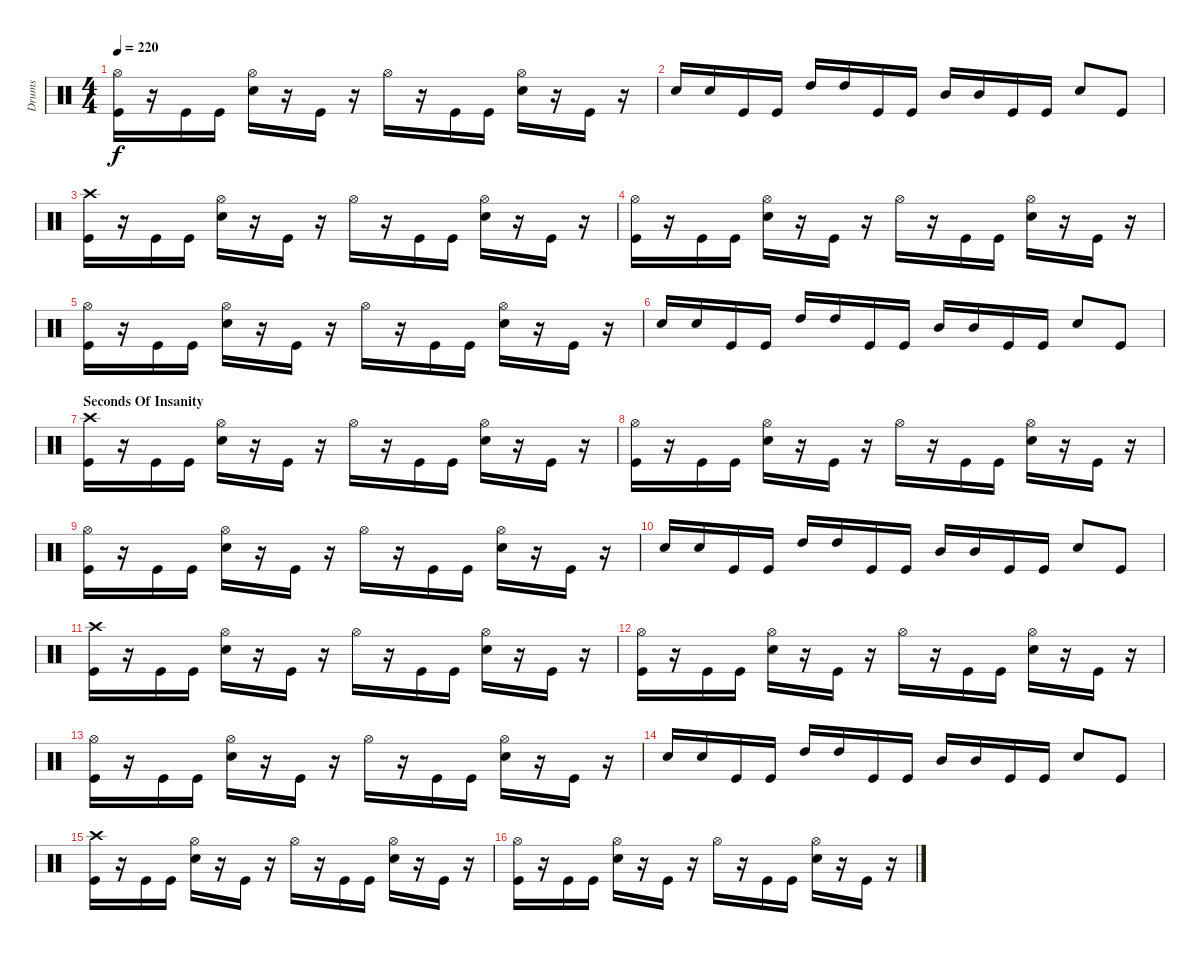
\track ("Drums" "Drums") {instrument percussion}
\staff {score}
\articulation defaults
\ts (4 4)
\tempo 220
\clef neutral
\ks c
("Hi-Hat (open)" "Kick (hit)").16{dy f} r.16 "Kick (hit)".16 "Kick (hit)".16 ("Hi-Hat (open)" "Snare (hit) 2").16 r.16 "Kick (hit)".16 r.16 "Hi-Hat (open)".16 r.16 "Kick (hit)".16 "Kick (hit)".16 ("Hi-Hat (open)" "Snare (hit) 2").16 r.16 "Kick (hit)".16 r.16 |
"Snare (hit) 2".16 "Snare (hit) 2".16 "Kick (hit)".16 "Kick (hit)".16 "High Tom (hit)".16 "High Tom (hit)".16 "Kick (hit)".16 "Kick (hit)".16 "Mid Tom (hit)".16 "Mid Tom (hit)".16 "Kick (hit)".16 "Kick (hit)".16 "Snare (hit) 2".8 "Kick (hit)".8 |
("Crash high (hit)" "Kick (hit)").16 r.16 "Kick (hit)".16 "Kick (hit)".16 ("Hi-Hat (open)" "Snare (hit) 2").16 r.16 "Kick (hit)".16 r.16 "Hi-Hat (open)".16 r.16 "Kick (hit)".16 "Kick (hit)".16 ("Hi-Hat (open)" "Snare (hit) 2").16 r.16 "Kick (hit)".16 r.16 |
("Hi-Hat (open)" "Kick (hit)").16 r.16 "Kick (hit)".16 "Kick (hit)".16 ("Hi-Hat (open)" "Snare (hit) 2").16 r.16 "Kick (hit)".16 r.16 "Hi-Hat (open)".16 r.16 "Kick (hit)".16 "Kick (hit)".16 ("Hi-Hat (open)" "Snare (hit) 2").16 r.16 "Kick (hit)".16 r.16 |
("Hi-Hat (open)" "Kick (hit)").16 r.16 "Kick (hit)".16 "Kick (hit)".16 ("Hi-Hat (open)" "Snare (hit) 2").16 r.16 "Kick (hit)".16 r.16 "Hi-Hat (open)".16 r.16 "Kick (hit)".16 "Kick (hit)".16 ("Hi-Hat (open)" "Snare (hit) 2").16 r.16 "Kick (hit)".16 r.16 |
"Snare (hit) 2".16 "Snare (hit) 2".16 "Kick (hit)".16 "Kick (hit)".16 "High Tom (hit)".16 "High Tom (hit)".16 "Kick (hit)".16 "Kick (hit)".16 "Mid Tom (hit)".16 "Mid Tom (hit)".16 "Kick (hit)".16 "Kick (hit)".16 "Snare (hit) 2".8 "Kick (hit)".8 |
\section ("" "Seconds Of Insanity")
("Crash high (hit)" "Kick (hit)").16 r.16 "Kick (hit)".16 "Kick (hit)".16 ("Hi-Hat (open)" "Snare (hit) 2").16 r.16 "Kick (hit)".16 r.16 "Hi-Hat (open)".16 r.16 "Kick (hit)".16 "Kick (hit)".16 ("Hi-Hat (open)" "Snare (hit) 2").16 r.16 "Kick (hit)".16 r.16 |
("Hi-Hat (open)" "Kick (hit)").16 r.16 "Kick (hit)".16 "Kick (hit)".16 ("Hi-Hat (open)" "Snare (hit) 2").16 r.16 "Kick (hit)".16 r.16 "Hi-Hat (open)".16 r.16 "Kick (hit)".16 "Kick (hit)".16 ("Hi-Hat (open)" "Snare (hit) 2").16 r.16 "Kick (hit)".16 r.16 |
("Hi-Hat (open)" "Kick (hit)").16 r.16 "Kick (hit)".16 "Kick (hit)".16 ("Hi-Hat (open)" "Snare (hit) 2").16 r.16 "Kick (hit)".16 r.16 "Hi-Hat (open)".16 r.16 "Kick (hit)".16 "Kick (hit)".16 ("Hi-Hat (open)" "Snare (hit) 2").16 r.16 "Kick (hit)".16 r.16 |
"Snare (hit) 2".16 "Snare (hit) 2".16 "Kick (hit)".16 "Kick (hit)".16 "High Tom (hit)".16 "High Tom (hit)".16 "Kick (hit)".16 "Kick (hit)".16 "Mid Tom (hit)".16 "Mid Tom (hit)".16 "Kick (hit)".16 "Kick (hit)".16 "Snare (hit) 2".8 "Kick (hit)".8 |
("Crash high (hit)" "Kick (hit)").16 r.16 "Kick (hit)".16 "Kick (hit)".16 ("Hi-Hat (open)" "Snare (hit) 2").16 r.16 "Kick (hit)".16 r.16 "Hi-Hat (open)".16 r.16 "Kick (hit)".16 "Kick (hit)".16 ("Hi-Hat (open)" "Snare (hit) 2").16 r.16 "Kick (hit)".16 r.16 |
("Hi-Hat (open)" "Kick (hit)").16 r.16 "Kick (hit)".16 "Kick (hit)".16 ("Hi-Hat (open)" "Snare (hit) 2").16 r.16 "Kick (hit)".16 r.16 "Hi-Hat (open)".16 r.16 "Kick (hit)".16 "Kick (hit)".16 ("Hi-Hat (open)" "Snare (hit) 2").16 r.16 "Kick (hit)".16 r.16 |
("Hi-Hat (open)" "Kick (hit)").16 r.16 "Kick (hit)".16 "Kick (hit)".16 ("Hi-Hat (open)" "Snare (hit) 2").16 r.16 "Kick (hit)".16 r.16 "Hi-Hat (open)".16 r.16 "Kick (hit)".16 "Kick (hit)".16 ("Hi-Hat (open)" "Snare (hit) 2").16 r.16 "Kick (hit)".16 r.16 |
"Snare (hit) 2".16 "Snare (hit) 2".16 "Kick (hit)".16 "Kick (hit)".16 "High Tom (hit)".16 "High Tom (hit)".16 "Kick (hit)".16 "Kick (hit)".16 "Mid Tom (hit)".16 "Mid Tom (hit)".16 "Kick (hit)".16 "Kick (hit)".16 "Snare (hit) 2".8 "Kick (hit)".8 |
("Crash high (hit)" "Kick (hit)").16 r.16 "Kick (hit)".16 "Kick (hit)".16 ("Hi-Hat (open)" "Snare (hit) 2").16 r.16 "Kick (hit)".16 r.16 "Hi-Hat (open)".16 r.16 "Kick (hit)".16 "Kick (hit)".16 ("Hi-Hat (open)" "Snare (hit) 2").16 r.16 "Kick (hit)".16 r.16 |
("Hi-Hat (open)" "Kick (hit)").16 r.16 "Kick (hit)".16 "Kick (hit)".16 ("Hi-Hat (open)" "Snare (hit) 2").16 r.16 "Kick (hit)".16 r.16 "Hi-Hat (open)".16 r.16 "Kick (hit)".16 "Kick (hit)".16 ("Hi-Hat (open)" "Snare (hit) 2").16 r.16 "Kick (hit)".16 r.16
